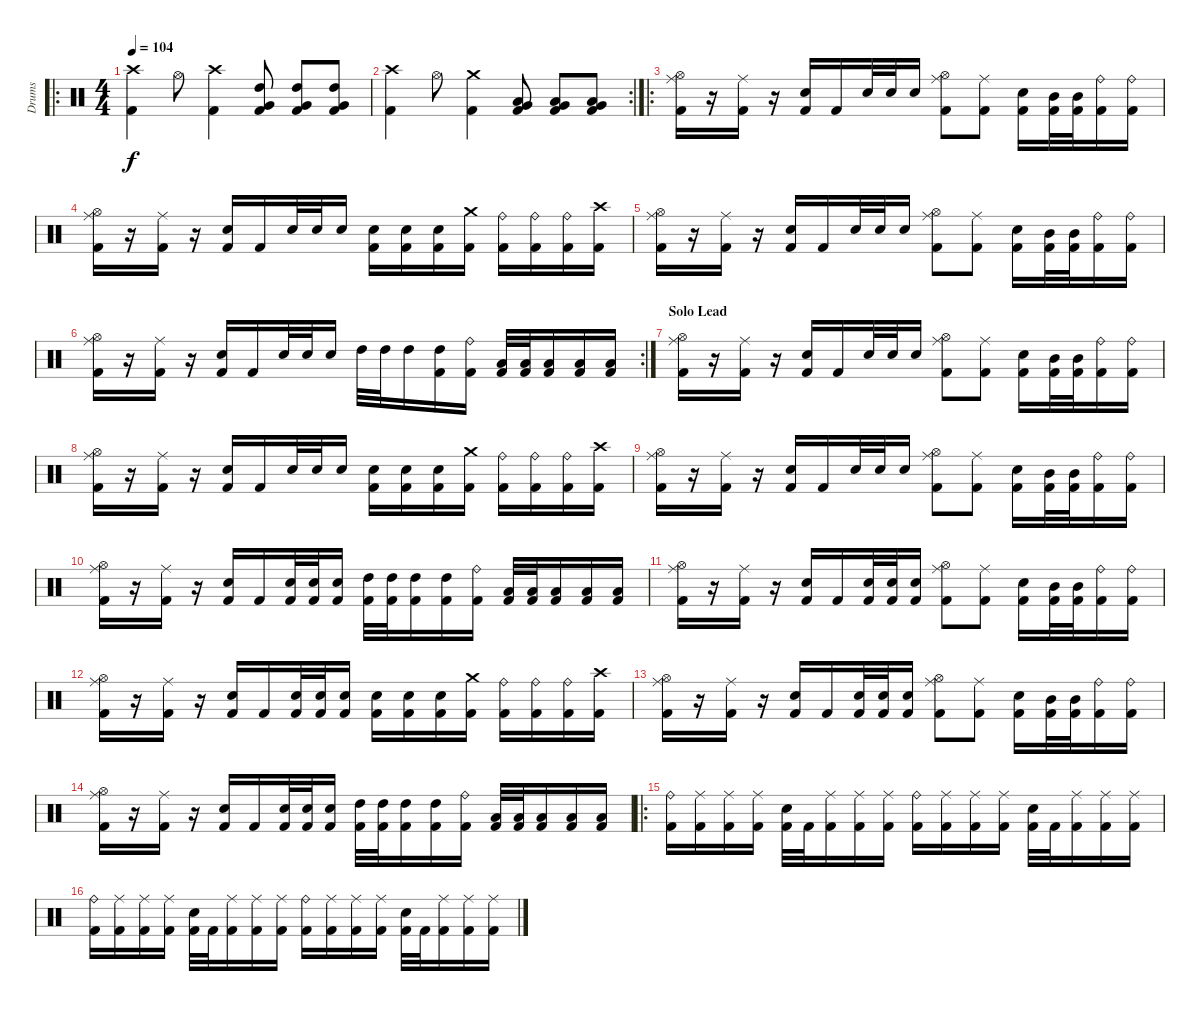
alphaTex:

\track ("Drums" "Drums") {instrument percussion}
\staff {score}
\articulation defaults
\ro
\ts (4 4)
\tempo 104
\clef neutral
\ks c
("Crash high (hit)" "Kick (hit) 2").4{dy f} "Hi-Hat (open)".8 ("Crash high (hit)" "Kick (hit) 2").4 ("High Tom (hit)" "Very Low Tom (hit)" "Kick (hit) 2").8 ("High Tom (hit)" "Very Low Tom (hit)" "Kick (hit) 2").8 ("High Tom (hit)" "Very Low Tom (hit)" "Kick (hit) 2").8 |
\rc 2
("Crash high (hit)" "Kick (hit) 2").4 "Hi-Hat (open)".8 ("Crash medium (hit)" "Kick (hit) 2").4 ("Low Tom (hit)" "Very Low Tom (hit)" "Kick (hit) 2").8 ("Low Tom (hit)" "Very Low Tom (hit)" "Kick (hit) 2").8 ("Low Tom (hit)" "Very Low Tom (hit)" "Kick (hit) 2").8 |
\ro
("Ride (middle)" "Hi-Hat (open)" "Kick (hit) 2").16 r.16 ("Ride (middle)" "Kick (hit) 2").16 r.16 ("Snare (hit) 2" "Kick (hit) 2").16 "Kick (hit) 2".16 "Snare (hit) 2".32 "Snare (hit) 2".32 "Snare (hit) 2".16 ("Ride (middle)" "Hi-Hat (open)" "Kick (hit) 2").8 ("Ride (middle)" "Kick (hit) 2").8 ("Snare (hit) 2" "Kick (hit) 2").16 ("Mid Tom (hit)" "Kick (hit) 2").32 ("Mid Tom (hit)" "Kick (hit) 2").32 ("Ride (bell)" "Kick (hit) 2").16 ("Ride (bell)" "Kick (hit) 2").16 |
("Ride (middle)" "Hi-Hat (open)" "Kick (hit) 2").16 r.16 ("Ride (middle)" "Kick (hit) 2").16 r.16 ("Snare (hit) 2" "Kick (hit) 2").16 "Kick (hit) 2".16 "Snare (hit) 2".32 "Snare (hit) 2".32 "Snare (hit) 2".16 ("Snare (hit) 2" "Kick (hit) 2").16 ("Snare (hit) 2" "Kick (hit) 2").16 ("Snare (hit) 2" "Kick (hit) 2").16 ("Crash medium (hit)" "Kick (hit) 2").16 ("Ride (bell)" "Kick (hit) 2").16 ("Ride (bell)" "Kick (hit) 2").16 ("Ride (bell)" "Kick (hit) 2").16 ("Crash high (hit)" "Kick (hit) 2").16 |
("Ride (middle)" "Hi-Hat (open)" "Kick (hit) 2").16 r.16 ("Ride (middle)" "Kick (hit) 2").16 r.16 ("Snare (hit) 2" "Kick (hit) 2").16 "Kick (hit) 2".16 "Snare (hit) 2".32 "Snare (hit) 2".32 "Snare (hit) 2".16 ("Ride (middle)" "Hi-Hat (open)" "Kick (hit) 2").8 ("Ride (middle)" "Kick (hit) 2").8 ("Snare (hit) 2" "Kick (hit) 2").16 ("Mid Tom (hit)" "Kick (hit) 2").32 ("Mid Tom (hit)" "Kick (hit) 2").32 ("Ride (bell)" "Kick (hit) 2").16 ("Ride (bell)" "Kick (hit) 2").16 |
\rc 2
("Ride (middle)" "Hi-Hat (open)" "Kick (hit) 2").16 r.16 ("Ride (middle)" "Kick (hit) 2").16 r.16 ("Snare (hit) 2" "Kick (hit) 2").16 "Kick (hit) 2".16 "Snare (hit) 2".32 "Snare (hit) 2".32 "Snare (hit) 2".16 "High Tom (hit)".32 "High Tom (hit)".32 "High Tom (hit)".16 ("High Tom (hit)" "Kick (hit) 2").16 ("Ride (bell)" "Kick (hit) 2").16 ("Low Tom (hit)" "Kick (hit) 2").32 ("Low Tom (hit)" "Kick (hit) 2").32 ("Low Tom (hit)" "Kick (hit) 2").16 ("Low Tom (hit)" "Kick (hit) 2").16 ("Low Tom (hit)" "Kick (hit) 2").16 |
\section ("" "Solo Lead")
("Ride (middle)" "Hi-Hat (open)" "Kick (hit) 2").16 r.16 ("Ride (middle)" "Kick (hit) 2").16 r.16 ("Snare (hit) 2" "Kick (hit) 2").16 "Kick (hit) 2".16 "Snare (hit) 2".32 "Snare (hit) 2".32 "Snare (hit) 2".16 ("Ride (middle)" "Hi-Hat (open)" "Kick (hit) 2").8 ("Ride (middle)" "Kick (hit) 2").8 ("Snare (hit) 2" "Kick (hit) 2").16 ("Mid Tom (hit)" "Kick (hit) 2").32 ("Mid Tom (hit)" "Kick (hit) 2").32 ("Ride (bell)" "Kick (hit) 2").16 ("Ride (bell)" "Kick (hit) 2").16 |
("Ride (middle)" "Hi-Hat (open)" "Kick (hit) 2").16 r.16 ("Ride (middle)" "Kick (hit) 2").16 r.16 ("Snare (hit) 2" "Kick (hit) 2").16 "Kick (hit) 2".16 "Snare (hit) 2".32 "Snare (hit) 2".32 "Snare (hit) 2".16 ("Snare (hit) 2" "Kick (hit) 2").16 ("Snare (hit) 2" "Kick (hit) 2").16 ("Snare (hit) 2" "Kick (hit) 2").16 ("Crash medium (hit)" "Kick (hit) 2").16 ("Ride (bell)" "Kick (hit) 2").16 ("Ride (bell)" "Kick (hit) 2").16 ("Ride (bell)" "Kick (hit) 2").16 ("Crash high (hit)" "Kick (hit) 2").16 |
("Ride (middle)" "Hi-Hat (open)" "Kick (hit) 2").16 r.16 ("Ride (middle)" "Kick (hit) 2").16 r.16 ("Snare (hit) 2" "Kick (hit) 2").16 "Kick (hit) 2".16 "Snare (hit) 2".32 "Snare (hit) 2".32 "Snare (hit) 2".16 ("Ride (middle)" "Hi-Hat (open)" "Kick (hit) 2").8 ("Ride (middle)" "Kick (hit) 2").8 ("Snare (hit) 2" "Kick (hit) 2").16 ("Mid Tom (hit)" "Kick (hit) 2").32 ("Mid Tom (hit)" "Kick (hit) 2").32 ("Ride (bell)" "Kick (hit) 2").16 ("Ride (bell)" "Kick (hit) 2").16 |
("Ride (middle)" "Hi-Hat (open)" "Kick (hit) 2").16 r.16 ("Ride (middle)" "Kick (hit) 2").16 r.16 ("Snare (hit) 2" "Kick (hit) 2").16 "Kick (hit) 2".16 ("Snare (hit) 2" "Kick (hit) 2").32 ("Snare (hit) 2" "Kick (hit) 2").32 ("Snare (hit) 2" "Kick (hit) 2").16 ("High Tom (hit)" "Kick (hit) 2").32 ("High Tom (hit)" "Kick (hit) 2").32 ("High Tom (hit)" "Kick (hit) 2").16 ("High Tom (hit)" "Kick (hit) 2").16 ("Ride (bell)" "Kick (hit) 2").16 ("Low Tom (hit)" "Kick (hit) 2").32 ("Low Tom (hit)" "Kick (hit) 2").32 ("Low Tom (hit)" "Kick (hit) 2").16 ("Low Tom (hit)" "Kick (hit) 2").16 ("Low Tom (hit)" "Kick (hit) 2").16 |
("Ride (middle)" "Hi-Hat (open)" "Kick (hit) 2").16 r.16 ("Ride (middle)" "Kick (hit) 2").16 r.16 ("Snare (hit) 2" "Kick (hit) 2").16 "Kick (hit) 2".16 ("Snare (hit) 2" "Kick (hit) 2").32 ("Snare (hit) 2" "Kick (hit) 2").32 ("Snare (hit) 2" "Kick (hit) 2").16 ("Ride (middle)" "Hi-Hat (open)" "Kick (hit) 2").8 ("Ride (middle)" "Kick (hit) 2").8 ("Snare (hit) 2" "Kick (hit) 2").16 ("Mid Tom (hit)" "Kick (hit) 2").32 ("Mid Tom (hit)" "Kick (hit) 2").32 ("Ride (bell)" "Kick (hit) 2").16 ("Ride (bell)" "Kick (hit) 2").16 |
("Ride (middle)" "Hi-Hat (open)" "Kick (hit) 2").16 r.16 ("Ride (middle)" "Kick (hit) 2").16 r.16 ("Snare (hit) 2" "Kick (hit) 2").16 "Kick (hit) 2".16 ("Snare (hit) 2" "Kick (hit) 2").32 ("Snare (hit) 2" "Kick (hit) 2").32 ("Snare (hit) 2" "Kick (hit) 2").16 ("Snare (hit) 2" "Kick (hit) 2").16 ("Snare (hit) 2" "Kick (hit) 2").16 ("Snare (hit) 2" "Kick (hit) 2").16 ("Crash medium (hit)" "Kick (hit) 2").16 ("Ride (bell)" "Kick (hit) 2").16 ("Ride (bell)" "Kick (hit) 2").16 ("Ride (bell)" "Kick (hit) 2").16 ("Crash high (hit)" "Kick (hit) 2").16 |
("Ride (middle)" "Hi-Hat (open)" "Kick (hit) 2").16 r.16 ("Ride (middle)" "Kick (hit) 2").16 r.16 ("Snare (hit) 2" "Kick (hit) 2").16 "Kick (hit) 2".16 ("Snare (hit) 2" "Kick (hit) 2").32 ("Snare (hit) 2" "Kick (hit) 2").32 ("Snare (hit) 2" "Kick (hit) 2").16 ("Ride (middle)" "Hi-Hat (open)" "Kick (hit) 2").8 ("Ride (middle)" "Kick (hit) 2").8 ("Snare (hit) 2" "Kick (hit) 2").16 ("Mid Tom (hit)" "Kick (hit) 2").32 ("Mid Tom (hit)" "Kick (hit) 2").32 ("Ride (bell)" "Kick (hit) 2").16 ("Ride (bell)" "Kick (hit) 2").16 |
("Ride (middle)" "Hi-Hat (open)" "Kick (hit) 2").16 r.16 ("Ride (middle)" "Kick (hit) 2").16 r.16 ("Snare (hit) 2" "Kick (hit) 2").16 "Kick (hit) 2".16 ("Snare (hit) 2" "Kick (hit) 2").32 ("Snare (hit) 2" "Kick (hit) 2").32 ("Snare (hit) 2" "Kick (hit) 2").16 ("High Tom (hit)" "Kick (hit) 2").32 ("High Tom (hit)" "Kick (hit) 2").32 ("High Tom (hit)" "Kick (hit) 2").16 ("High Tom (hit)" "Kick (hit) 2").16 ("Ride (bell)" "Kick (hit) 2").16 ("Low Tom (hit)" "Kick (hit) 2").32 ("Low Tom (hit)" "Kick (hit) 2").32 ("Low Tom (hit)" "Kick (hit) 2").16 ("Low Tom (hit)" "Kick (hit) 2").16 ("Low Tom (hit)" "Kick (hit) 2").16 |
\ro
("Ride (bell)" "Kick (hit) 2").16 ("Ride (middle)" "Kick (hit) 2").16 ("Ride (middle)" "Kick (hit) 2").16 ("Ride (middle)" "Kick (hit) 2").16 ("Snare (hit) 2" "Kick (hit) 2").32 "Kick (hit) 2".32 ("Ride (middle)" "Kick (hit) 2").16 ("Ride (middle)" "Kick (hit) 2").16 ("Ride (middle)" "Kick (hit) 2").16 ("Ride (bell)" "Kick (hit) 2").16 ("Ride (middle)" "Kick (hit) 2").16 ("Ride (middle)" "Kick (hit) 2").16 ("Ride (middle)" "Kick (hit) 2").16 ("Snare (hit) 2" "Kick (hit) 2").32 "Kick (hit) 2".32 ("Ride (middle)" "Kick (hit) 2").16 ("Ride (middle)" "Kick (hit) 2").16 ("Ride (middle)" "Kick (hit) 2").16 |
("Ride (bell)" "Kick (hit) 2").16 ("Ride (middle)" "Kick (hit) 2").16 ("Ride (middle)" "Kick (hit) 2").16 ("Ride (middle)" "Kick (hit) 2").16 ("Snare (hit) 2" "Kick (hit) 2").32 "Kick (hit) 2".32 ("Ride (middle)" "Kick (hit) 2").16 ("Ride (middle)" "Kick (hit) 2").16 ("Ride (middle)" "Kick (hit) 2").16 ("Ride (bell)" "Kick (hit) 2").16 ("Ride (middle)" "Kick (hit) 2").16 ("Ride (middle)" "Kick (hit) 2").16 ("Ride (middle)" "Kick (hit) 2").16 ("Snare (hit) 2" "Kick (hit) 2").32 "Kick (hit) 2".32 ("Ride (middle)" "Kick (hit) 2").16 ("Ride (middle)" "Kick (hit) 2").16 ("Ride (middle)" "Kick (hit) 2").16
